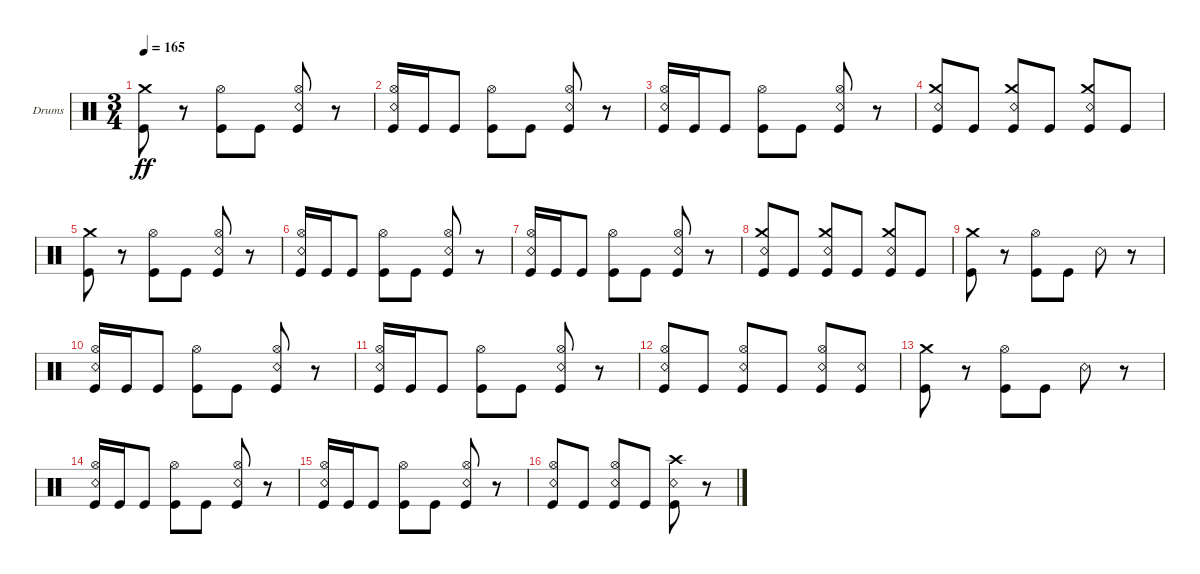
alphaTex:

\bracketExtendMode groupsimilarinstruments
\firstSystemTrackNameOrientation horizontal
\otherSystemsTrackNameOrientation horizontal
\track ("Kaleb - Drums" "Drums") {instrument percussion}
\staff {score}
\articulation defaults
\ts (3 4)
\tempo 165
\clef neutral
\ks c
("Kick (hit)" "Crash medium (hit)").8{dy ff} r.8 ("Kick (hit)" "Hi-Hat (open)").8 "Kick (hit)".8 ("Kick (hit)" "Hi-Hat (open)" "Snare (rim shot)").8 r.8 |
("Kick (hit)" "Hi-Hat (open)" "Snare (rim shot)").16 "Kick (hit)".16 "Kick (hit)".8 ("Kick (hit)" "Hi-Hat (open)").8 "Kick (hit)".8 ("Kick (hit)" "Hi-Hat (open)" "Snare (rim shot)").8 r.8 |
("Kick (hit)" "Hi-Hat (open)" "Snare (rim shot)").16 "Kick (hit)".16 "Kick (hit)".8 ("Kick (hit)" "Hi-Hat (open)").8 "Kick (hit)".8 ("Kick (hit)" "Hi-Hat (open)" "Snare (rim shot)").8 r.8 |
("Kick (hit)" "Crash medium (hit)" "Snare (rim shot)").8 "Kick (hit)".8 ("Kick (hit)" "Crash medium (hit)" "Snare (rim shot)").8 "Kick (hit)".8 ("Kick (hit)" "Crash medium (hit)" "Snare (rim shot)").8 "Kick (hit)".8 |
("Kick (hit)" "Crash medium (hit)").8 r.8 ("Kick (hit)" "Hi-Hat (open)").8 "Kick (hit)".8 ("Kick (hit)" "Hi-Hat (open)" "Snare (rim shot)").8 r.8 |
("Kick (hit)" "Hi-Hat (open)" "Snare (rim shot)").16 "Kick (hit)".16 "Kick (hit)".8 ("Kick (hit)" "Hi-Hat (open)").8 "Kick (hit)".8 ("Kick (hit)" "Hi-Hat (open)" "Snare (rim shot)").8 r.8 |
("Kick (hit)" "Hi-Hat (open)" "Snare (rim shot)").16 "Kick (hit)".16 "Kick (hit)".8 ("Kick (hit)" "Hi-Hat (open)").8 "Kick (hit)".8 ("Kick (hit)" "Hi-Hat (open)" "Snare (rim shot)").8 r.8 |
("Kick (hit)" "Crash medium (hit)" "Snare (rim shot)").8 "Kick (hit)".8 ("Kick (hit)" "Crash medium (hit)" "Snare (rim shot)").8 "Kick (hit)".8 ("Kick (hit)" "Crash medium (hit)" "Snare (rim shot)").8 "Kick (hit)".8 |
("Kick (hit)" "Crash medium (hit)").8 r.8 ("Kick (hit)" "Hi-Hat (open)").8 "Kick (hit)".8 "Snare (rim shot)".8 r.8 |
("Kick (hit)" "Hi-Hat (open)" "Snare (rim shot)").16 "Kick (hit)".16 "Kick (hit)".8 ("Kick (hit)" "Hi-Hat (open)").8 "Kick (hit)".8 ("Kick (hit)" "Hi-Hat (open)" "Snare (rim shot)").8 r.8 |
("Kick (hit)" "Hi-Hat (open)" "Snare (rim shot)").16 "Kick (hit)".16 "Kick (hit)".8 ("Kick (hit)" "Hi-Hat (open)").8 "Kick (hit)".8 ("Kick (hit)" "Hi-Hat (open)" "Snare (rim shot)").8 r.8 |
("Kick (hit)" "Snare (rim shot)" "Hi-Hat (open)").8 "Kick (hit)".8 ("Kick (hit)" "Snare (rim shot)" "Hi-Hat (open)").8 "Kick (hit)".8 ("Kick (hit)" "Snare (rim shot)" "Hi-Hat (open)").8 ("Kick (hit)" "Snare (rim shot)").8 |
("Kick (hit)" "Crash medium (hit)").8 r.8 ("Kick (hit)" "Hi-Hat (open)").8 "Kick (hit)".8 "Snare (rim shot)".8 r.8 |
("Kick (hit)" "Hi-Hat (open)" "Snare (rim shot)").16 "Kick (hit)".16 "Kick (hit)".8 ("Kick (hit)" "Hi-Hat (open)").8 "Kick (hit)".8 ("Kick (hit)" "Hi-Hat (open)" "Snare (rim shot)").8 r.8 |
("Kick (hit)" "Hi-Hat (open)" "Snare (rim shot)").16 "Kick (hit)".16 "Kick (hit)".8 ("Kick (hit)" "Hi-Hat (open)").8 "Kick (hit)".8 ("Kick (hit)" "Hi-Hat (open)" "Snare (rim shot)").8 r.8 |
("Kick (hit)" "Snare (rim shot)" "Hi-Hat (open)").8 "Kick (hit)".8 ("Kick (hit)" "Snare (rim shot)" "Hi-Hat (open)").8 "Kick (hit)".8 ("Kick (hit)" "Snare (rim shot)" "Crash high (hit)").8 r.8
